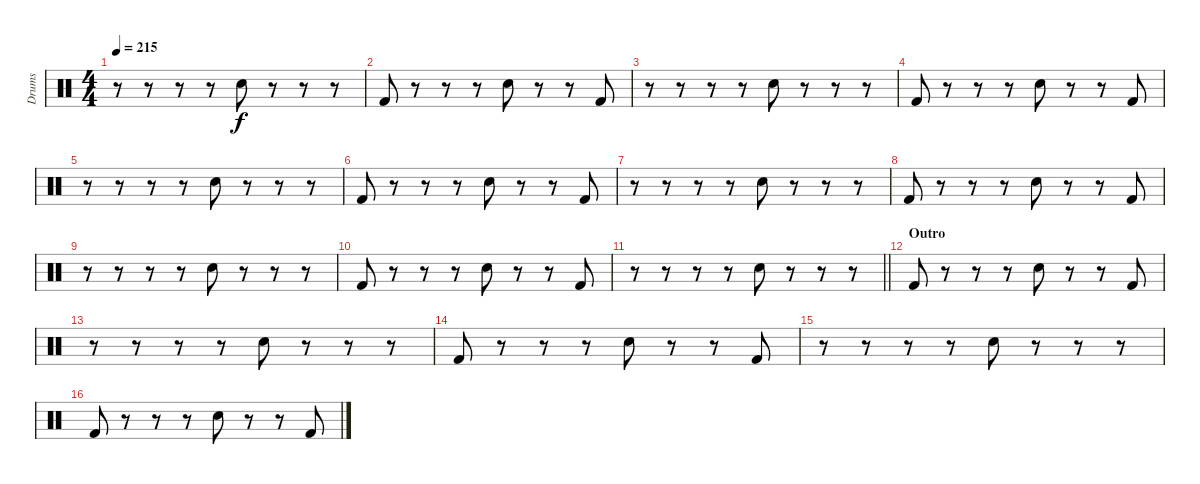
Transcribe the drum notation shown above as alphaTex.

\track ("Drums" "Drums") {instrument percussion}
\staff {score}
\articulation defaults
\ts (4 4)
\tempo 215
\clef neutral
\ks c
r.8{dy f} r.8 r.8 r.8 "Electric Snare (hit)".8 r.8 r.8 r.8 |
"Kick (hit) 2".8 r.8 r.8 r.8 "Electric Snare (hit)".8 r.8 r.8 "Kick (hit) 2".8 |
r.8 r.8 r.8 r.8 "Electric Snare (hit)".8 r.8 r.8 r.8 |
"Kick (hit) 2".8 r.8 r.8 r.8 "Electric Snare (hit)".8 r.8 r.8 "Kick (hit) 2".8 |
r.8 r.8 r.8 r.8 "Electric Snare (hit)".8 r.8 r.8 r.8 |
"Kick (hit) 2".8 r.8 r.8 r.8 "Electric Snare (hit)".8 r.8 r.8 "Kick (hit) 2".8 |
r.8 r.8 r.8 r.8 "Electric Snare (hit)".8 r.8 r.8 r.8 |
"Kick (hit) 2".8 r.8 r.8 r.8 "Electric Snare (hit)".8 r.8 r.8 "Kick (hit) 2".8 |
r.8 r.8 r.8 r.8 "Electric Snare (hit)".8 r.8 r.8 r.8 |
"Kick (hit) 2".8 r.8 r.8 r.8 "Electric Snare (hit)".8 r.8 r.8 "Kick (hit) 2".8 |
\barLineRight lightlight
r.8 r.8 r.8 r.8 "Electric Snare (hit)".8 r.8 r.8 r.8 |
\section ("" "Outro")
"Kick (hit) 2".8 r.8 r.8 r.8 "Electric Snare (hit)".8 r.8 r.8 "Kick (hit) 2".8 |
r.8 r.8 r.8 r.8 "Electric Snare (hit)".8 r.8 r.8 r.8 |
"Kick (hit) 2".8 r.8 r.8 r.8 "Electric Snare (hit)".8 r.8 r.8 "Kick (hit) 2".8 |
r.8 r.8 r.8 r.8 "Electric Snare (hit)".8 r.8 r.8 r.8 |
"Kick (hit) 2".8 r.8 r.8 r.8 "Electric Snare (hit)".8 r.8 r.8 "Kick (hit) 2".8
